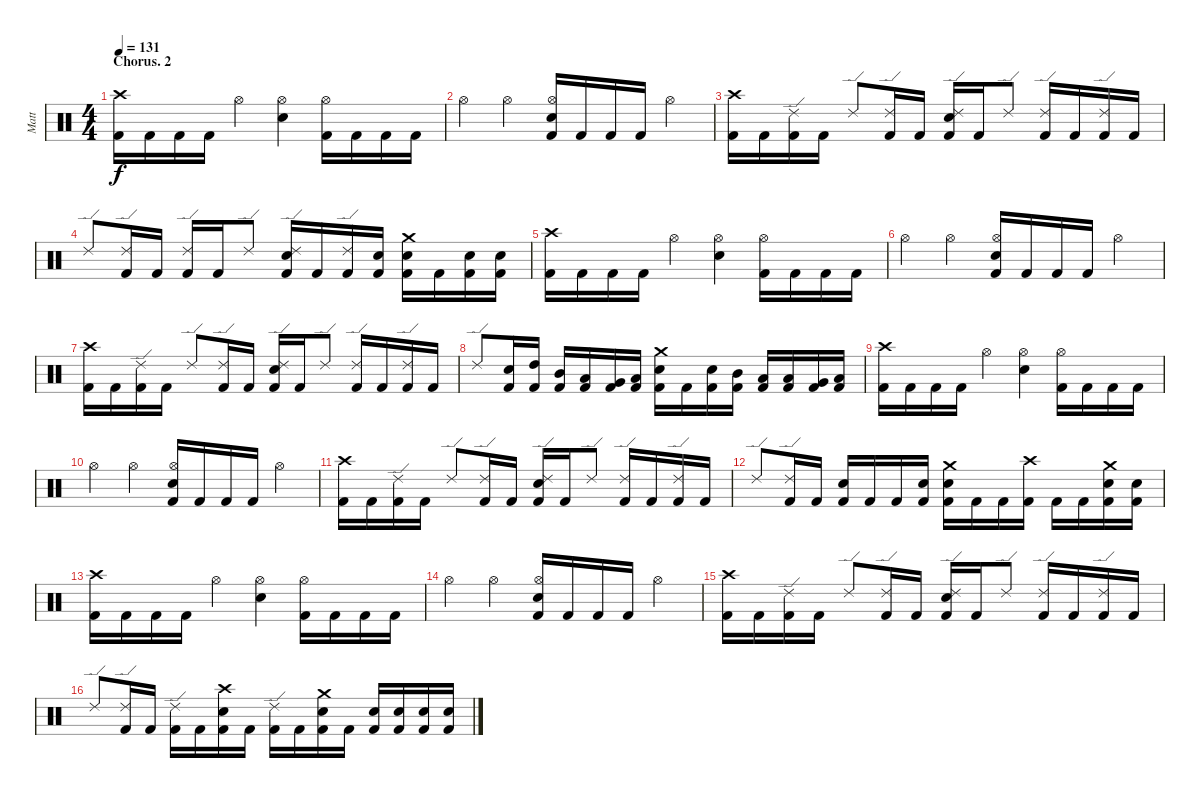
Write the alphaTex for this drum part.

\track ("Matt" "Matt") {instrument percussion}
\staff {score}
\articulation defaults
\ts (4 4)
\section ("" "Chorus. 2")
\tempo 131
\clef neutral
\ks c
("Crash high (hit)" "Kick (hit) 2").16{dy f} "Kick (hit) 2".16 "Kick (hit) 2".16 "Kick (hit) 2".16 "Hi-Hat (open)".4 ("Hi-Hat (open)" "Electric Snare (hit)").4 ("Hi-Hat (open)" "Kick (hit) 2").16 "Kick (hit) 2".16 "Kick (hit) 2".16 "Kick (hit) 2".16 |
"Hi-Hat (open)".4 "Hi-Hat (open)".4 ("Hi-Hat (open)" "Electric Snare (hit)" "Kick (hit) 2").16 "Kick (hit) 2".16 "Kick (hit) 2".16 "Kick (hit) 2".16 "Hi-Hat (open)".4 |
("Crash high (hit)" "Kick (hit) 2").16 "Kick (hit) 2".16 ("Ride (edge) 2" "Kick (hit) 2").16 "Kick (hit) 2".16 "Ride (edge) 2".8 ("Ride (edge) 2" "Kick (hit) 2").16 "Kick (hit) 2".16 ("Ride (edge) 2" "Electric Snare (hit)" "Kick (hit) 2").16 "Kick (hit) 2".16 "Ride (edge) 2".8 ("Ride (edge) 2" "Kick (hit) 2").16 "Kick (hit) 2".16 ("Ride (edge) 2" "Kick (hit) 2").16 "Kick (hit) 2".16 |
"Ride (edge) 2".8 ("Ride (edge) 2" "Kick (hit) 2").16 "Kick (hit) 2".16 ("Ride (edge) 2" "Kick (hit) 2").16 "Kick (hit) 2".16 "Ride (edge) 2".8 ("Ride (edge) 2" "Electric Snare (hit)" "Kick (hit) 2").16 "Kick (hit) 2".16 ("Ride (edge) 2" "Kick (hit) 2").16 ("Electric Snare (hit)" "Kick (hit) 2").16 ("Crash medium (hit)" "Electric Snare (hit)" "Kick (hit) 2").16 "Kick (hit) 2".16 ("Electric Snare (hit)" "Kick (hit) 2").16 ("Electric Snare (hit)" "Kick (hit) 2").16 |
("Crash high (hit)" "Kick (hit) 2").16 "Kick (hit) 2".16 "Kick (hit) 2".16 "Kick (hit) 2".16 "Hi-Hat (open)".4 ("Hi-Hat (open)" "Electric Snare (hit)").4 ("Hi-Hat (open)" "Kick (hit) 2").16 "Kick (hit) 2".16 "Kick (hit) 2".16 "Kick (hit) 2".16 |
"Hi-Hat (open)".4 "Hi-Hat (open)".4 ("Hi-Hat (open)" "Electric Snare (hit)" "Kick (hit) 2").16 "Kick (hit) 2".16 "Kick (hit) 2".16 "Kick (hit) 2".16 "Hi-Hat (open)".4 |
("Crash high (hit)" "Kick (hit) 2").16 "Kick (hit) 2".16 ("Ride (edge) 2" "Kick (hit) 2").16 "Kick (hit) 2".16 "Ride (edge) 2".8 ("Ride (edge) 2" "Kick (hit) 2").16 "Kick (hit) 2".16 ("Ride (edge) 2" "Electric Snare (hit)" "Kick (hit) 2").16 "Kick (hit) 2".16 "Ride (edge) 2".8 ("Ride (edge) 2" "Kick (hit) 2").16 "Kick (hit) 2".16 ("Ride (edge) 2" "Kick (hit) 2").16 "Kick (hit) 2".16 |
"Ride (edge) 2".8 ("Electric Snare (hit)" "Kick (hit) 2").16 ("High Tom (hit)" "Kick (hit) 2").16 ("Mid Tom (hit)" "Kick (hit) 2").16 ("Low Tom (hit)" "Kick (hit) 2").16 ("Very Low Tom (hit)" "Kick (hit) 2").16 ("Low Floor Tom (hit)" "Kick (hit) 2").16 ("Crash medium (hit)" "Electric Snare (hit)" "Kick (hit) 2").16 "Kick (hit) 2".16 ("Electric Snare (hit)" "Kick (hit) 2").16 ("Mid Tom (hit)" "Kick (hit) 2").16 ("Low Tom (hit)" "Kick (hit) 2").16 ("Low Tom (hit)" "Kick (hit) 2").16 ("Very Low Tom (hit)" "Kick (hit) 2").16 ("Low Floor Tom (hit)" "Kick (hit) 2").16 |
("Crash high (hit)" "Kick (hit) 2").16 "Kick (hit) 2".16 "Kick (hit) 2".16 "Kick (hit) 2".16 "Hi-Hat (open)".4 ("Hi-Hat (open)" "Electric Snare (hit)").4 ("Hi-Hat (open)" "Kick (hit) 2").16 "Kick (hit) 2".16 "Kick (hit) 2".16 "Kick (hit) 2".16 |
"Hi-Hat (open)".4 "Hi-Hat (open)".4 ("Hi-Hat (open)" "Electric Snare (hit)" "Kick (hit) 2").16 "Kick (hit) 2".16 "Kick (hit) 2".16 "Kick (hit) 2".16 "Hi-Hat (open)".4 |
("Crash high (hit)" "Kick (hit) 2").16 "Kick (hit) 2".16 ("Ride (edge) 2" "Kick (hit) 2").16 "Kick (hit) 2".16 "Ride (edge) 2".8 ("Ride (edge) 2" "Kick (hit) 2").16 "Kick (hit) 2".16 ("Ride (edge) 2" "Electric Snare (hit)" "Kick (hit) 2").16 "Kick (hit) 2".16 "Ride (edge) 2".8 ("Ride (edge) 2" "Kick (hit) 2").16 "Kick (hit) 2".16 ("Ride (edge) 2" "Kick (hit) 2").16 "Kick (hit) 2".16 |
"Ride (edge) 2".8 ("Ride (edge) 2" "Kick (hit) 2").16 "Kick (hit) 2".16 ("Electric Snare (hit)" "Kick (hit) 2").16 "Kick (hit) 2".16 "Kick (hit) 2".16 ("Electric Snare (hit)" "Kick (hit) 2").16 ("Crash medium (hit)" "Electric Snare (hit)" "Kick (hit) 2").16 "Kick (hit) 2".16 "Kick (hit) 2".16 ("Crash high (hit)" "Kick (hit) 2").16 "Kick (hit) 2".16 "Kick (hit) 2".16 ("Crash medium (hit)" "Electric Snare (hit)" "Kick (hit) 2").16 ("Electric Snare (hit)" "Kick (hit) 2").16 |
("Crash high (hit)" "Kick (hit) 2").16 "Kick (hit) 2".16 "Kick (hit) 2".16 "Kick (hit) 2".16 "Hi-Hat (open)".4 ("Hi-Hat (open)" "Electric Snare (hit)").4 ("Hi-Hat (open)" "Kick (hit) 2").16 "Kick (hit) 2".16 "Kick (hit) 2".16 "Kick (hit) 2".16 |
"Hi-Hat (open)".4 "Hi-Hat (open)".4 ("Hi-Hat (open)" "Electric Snare (hit)" "Kick (hit) 2").16 "Kick (hit) 2".16 "Kick (hit) 2".16 "Kick (hit) 2".16 "Hi-Hat (open)".4 |
("Crash high (hit)" "Kick (hit) 2").16 "Kick (hit) 2".16 ("Ride (edge) 2" "Kick (hit) 2").16 "Kick (hit) 2".16 "Ride (edge) 2".8 ("Ride (edge) 2" "Kick (hit) 2").16 "Kick (hit) 2".16 ("Ride (edge) 2" "Electric Snare (hit)" "Kick (hit) 2").16 "Kick (hit) 2".16 "Ride (edge) 2".8 ("Ride (edge) 2" "Kick (hit) 2").16 "Kick (hit) 2".16 ("Ride (edge) 2" "Kick (hit) 2").16 "Kick (hit) 2".16 |
"Ride (edge) 2".8 ("Ride (edge) 2" "Kick (hit) 2").16 "Kick (hit) 2".16 ("Ride (edge) 2" "Kick (hit) 2").16 "Kick (hit) 2".16 ("Crash high (hit)" "Electric Snare (hit)" "Kick (hit) 2").16 "Kick (hit) 2".16 ("Ride (edge) 2" "Kick (hit) 2").16 "Kick (hit) 2".16 ("Crash medium (hit)" "Electric Snare (hit)" "Kick (hit) 2").16 "Kick (hit) 2".16 ("Electric Snare (hit)" "Kick (hit) 2").16 ("Electric Snare (hit)" "Kick (hit) 2").16 ("Electric Snare (hit)" "Kick (hit) 2").16 ("Electric Snare (hit)" "Kick (hit) 2").16
